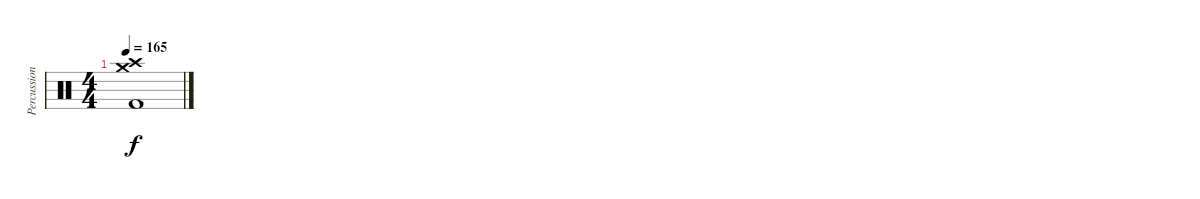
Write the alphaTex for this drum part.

\track ("Percussion" "Percussion") {instrument percussion}
\staff {score}
\articulation defaults
\ts (4 4)
\tempo 165
\clef neutral
\ks c
("Crash high (hit)" "Crash medium (hit)" "Kick (hit) 2").1{dy f}
